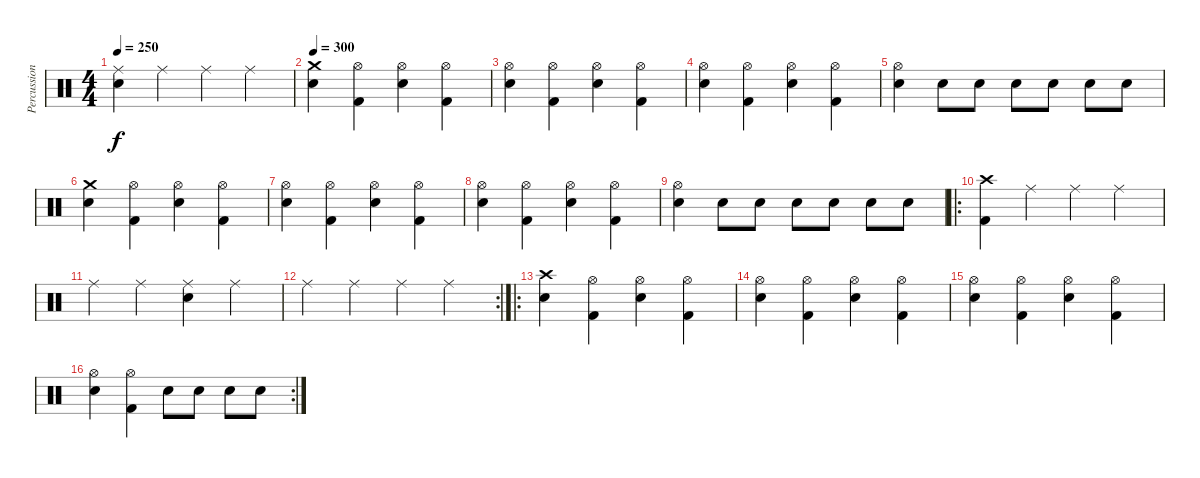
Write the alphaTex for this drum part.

\track ("Percussion" "Percussion") {instrument percussion}
\staff {score}
\articulation defaults
\ts (4 4)
\tempo 250
\clef neutral
\ks c
("Ride (middle)" "Snare (hit) 2").4{dy f} "Ride (middle)".4 "Ride (middle)".4 "Ride (middle)".4 |
\tempo 300
("Crash medium (hit)" "Snare (hit) 2").4 ("Hi-Hat (open)" "Kick (hit) 2").4 ("Hi-Hat (open)" "Snare (hit) 2").4 ("Hi-Hat (open)" "Kick (hit) 2").4 |
("Hi-Hat (open)" "Snare (hit) 2").4 ("Hi-Hat (open)" "Kick (hit) 2").4 ("Hi-Hat (open)" "Snare (hit) 2").4 ("Hi-Hat (open)" "Kick (hit) 2").4 |
("Hi-Hat (open)" "Snare (hit) 2").4 ("Hi-Hat (open)" "Kick (hit) 2").4 ("Hi-Hat (open)" "Snare (hit) 2").4 ("Hi-Hat (open)" "Kick (hit) 2").4 |
("Hi-Hat (open)" "Snare (hit) 2").4 "Snare (hit) 2".8 "Snare (hit) 2".8 "Snare (hit) 2".8 "Snare (hit) 2".8 "Snare (hit) 2".8 "Snare (hit) 2".8 |
("Crash medium (hit)" "Snare (hit) 2").4 ("Hi-Hat (open)" "Kick (hit) 2").4 ("Hi-Hat (open)" "Snare (hit) 2").4 ("Hi-Hat (open)" "Kick (hit) 2").4 |
("Hi-Hat (open)" "Snare (hit) 2").4 ("Hi-Hat (open)" "Kick (hit) 2").4 ("Hi-Hat (open)" "Snare (hit) 2").4 ("Hi-Hat (open)" "Kick (hit) 2").4 |
("Hi-Hat (open)" "Snare (hit) 2").4 ("Hi-Hat (open)" "Kick (hit) 2").4 ("Hi-Hat (open)" "Snare (hit) 2").4 ("Hi-Hat (open)" "Kick (hit) 2").4 |
("Hi-Hat (open)" "Snare (hit) 2").4 "Snare (hit) 2".8 "Snare (hit) 2".8 "Snare (hit) 2".8 "Snare (hit) 2".8 "Snare (hit) 2".8 "Snare (hit) 2".8 |
\ro
("Crash high (hit)" "Kick (hit) 2").4 "Ride (middle)".4 "Ride (middle)".4 "Ride (middle)".4 |
"Ride (middle)".4 "Ride (middle)".4 ("Ride (middle)" "Snare (hit) 2").4 "Ride (middle)".4 |
\rc 2 "Ride (middle)".4 "Ride (middle)".4 "Ride (middle)".4 "Ride (middle)".4
|
\ro
("Crash high (hit)" "Snare (hit) 2").4 ("Hi-Hat (open)" "Kick (hit) 2").4 ("Hi-Hat (open)" "Snare (hit) 2").4 ("Hi-Hat (open)" "Kick (hit) 2").4 |
("Hi-Hat (open)" "Snare (hit) 2").4 ("Hi-Hat (open)" "Kick (hit) 2").4 ("Hi-Hat (open)" "Snare (hit) 2").4 ("Hi-Hat (open)" "Kick (hit) 2").4 |
("Hi-Hat (open)" "Snare (hit) 2").4 ("Hi-Hat (open)" "Kick (hit) 2").4 ("Hi-Hat (open)" "Snare (hit) 2").4 ("Hi-Hat (open)" "Kick (hit) 2").4 |
\rc 2
("Hi-Hat (open)" "Snare (hit) 2").4 ("Hi-Hat (open)" "Kick (hit) 2").4 "Snare (hit) 2".8 "Snare (hit) 2".8 "Snare (hit) 2".8 "Snare (hit) 2".8
